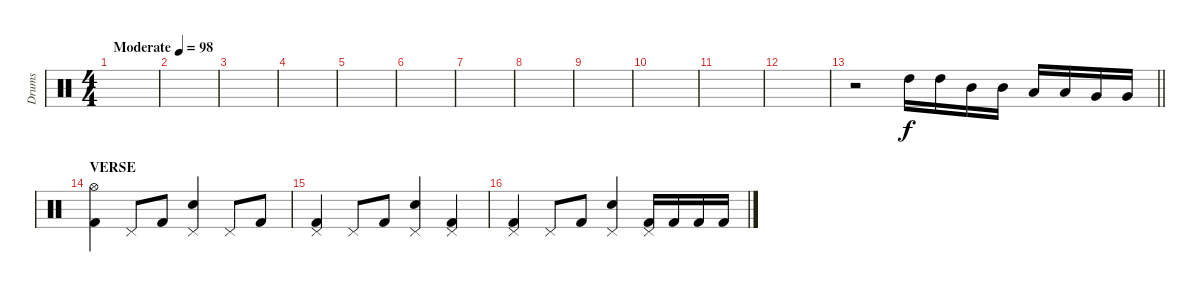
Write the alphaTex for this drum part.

\track ("Drums" "Drums") {instrument percussion}
\staff
\articulation defaults
\ts (4 4)
\tempo (98 "Moderate")
\clef neutral
\ks c
|
|
|
|
|
|
|
|
|
|
|
|
\barLineRight lightlight
r.2 "High Tom (hit)".16 "High Tom (hit)".16 "Mid Tom (hit)".16 "Mid Tom (hit)".16 "Low Tom (hit)".16 "Low Tom (hit)".16 "Very Low Tom (hit)".16 "Very Low Tom (hit)".16 |
\section ("" "VERSE")
("Hi-Hat (open)" "Kick (hit) 2").4 "Pedal Hi-Hat (hit)".8 "Kick (hit) 2".8 ("Pedal Hi-Hat (hit)" "Snare (hit) 2").4 "Pedal Hi-Hat (hit)".8 "Kick (hit) 2".8 |
("Pedal Hi-Hat (hit)" "Kick (hit) 2").4 "Pedal Hi-Hat (hit)".8 "Kick (hit) 2".8 ("Pedal Hi-Hat (hit)" "Snare (hit) 2").4 ("Pedal Hi-Hat (hit)" "Kick (hit) 2").4 |
("Pedal Hi-Hat (hit)" "Kick (hit) 2").4 "Pedal Hi-Hat (hit)".8 "Kick (hit) 2".8 ("Pedal Hi-Hat (hit)" "Snare (hit) 2").4 ("Pedal Hi-Hat (hit)" "Kick (hit) 2").16 "Kick (hit) 2".16 "Kick (hit) 2".16 "Kick (hit) 2".16
